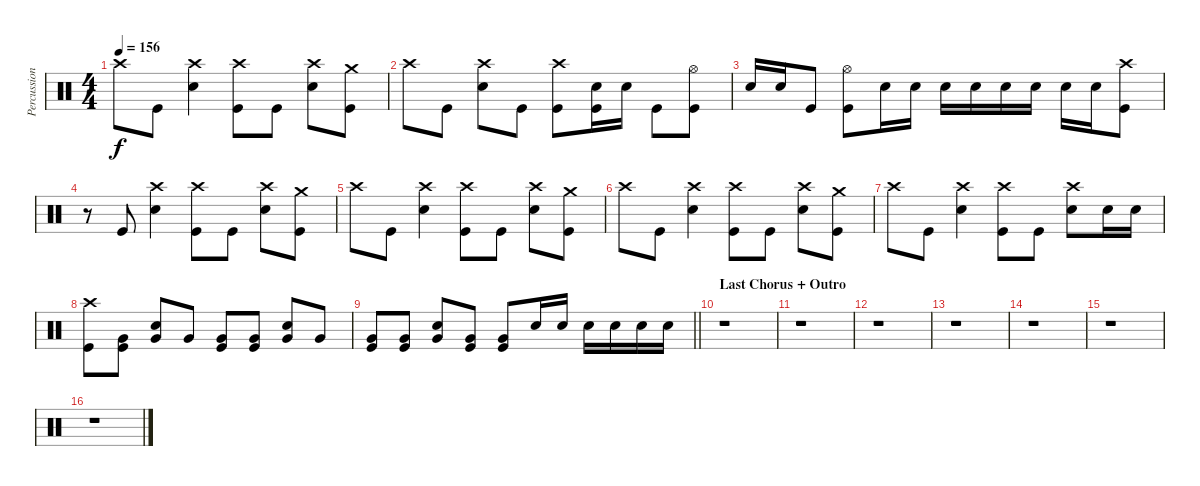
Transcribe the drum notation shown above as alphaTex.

\track ("Percussion" "Percussion") {instrument percussion}
\staff {score}
\articulation defaults
\ts (4 4)
\tempo 156
\clef neutral
\ks c "Crash high (hit)".8{dy f} "Kick (hit)".8
("Crash high (hit)" "Snare (hit) 2").4 ("Crash high (hit)" "Kick (hit)").8 "Kick (hit)".8 ("Crash high (hit)" "Snare (hit) 2").8 ("Crash medium (hit)" "Kick (hit)").8 |
"Crash high (hit)".8 "Kick (hit)".8 ("Crash high (hit)" "Snare (hit) 2").8 "Kick (hit)".8 ("Crash high (hit)" "Kick (hit)").8 ("Snare (hit) 2" "Kick (hit)").16 "Snare (hit) 2".16 "Kick (hit)".8 ("Hi-Hat (open)" "Kick (hit)").8 |
"Snare (hit) 2".16 "Snare (hit) 2".16 "Kick (hit)".8 ("Hi-Hat (open)" "Kick (hit)").8 "Snare (hit) 2".16 "Snare (hit) 2".16 "Snare (hit) 2".16 "Snare (hit) 2".16 "Snare (hit) 2".16 "Snare (hit) 2".16 "Snare (hit) 2".16 "Snare (hit) 2".16 ("Crash high (hit)" "Kick (hit)").8 |
r.8 "Kick (hit)".8 ("Crash high (hit)" "Snare (hit) 2").4 ("Crash high (hit)" "Kick (hit)").8 "Kick (hit)".8 ("Crash high (hit)" "Snare (hit) 2").8 ("Crash medium (hit)" "Kick (hit)").8 |
"Crash high (hit)".8 "Kick (hit)".8 ("Crash high (hit)" "Snare (hit) 2").4 ("Crash high (hit)" "Kick (hit)").8 "Kick (hit)".8 ("Crash high (hit)" "Snare (hit) 2").8 ("Crash medium (hit)" "Kick (hit)").8 |
"Crash high (hit)".8 "Kick (hit)".8 ("Crash high (hit)" "Snare (hit) 2").4 ("Crash high (hit)" "Kick (hit)").8 "Kick (hit)".8 ("Crash high (hit)" "Snare (hit) 2").8 ("Crash medium (hit)" "Kick (hit)").8 |
"Crash high (hit)".8 "Kick (hit)".8 ("Crash high (hit)" "Snare (hit) 2").4 ("Crash high (hit)" "Kick (hit)").8 "Kick (hit)".8 ("Crash high (hit)" "Snare (hit) 2").8 "Snare (hit) 2".16 "Snare (hit) 2".16 |
("Crash high (hit)" "Kick (hit)").8 ("Very Low Tom (hit)" "Kick (hit)").8 ("Snare (hit) 2" "Very Low Tom (hit)").8 "Very Low Tom (hit)".8 ("Very Low Tom (hit)" "Kick (hit)").8 ("Very Low Tom (hit)" "Kick (hit)").8 ("Snare (hit) 2" "Very Low Tom (hit)").8 "Very Low Tom (hit)".8 |
\barLineRight lightlight
("Very Low Tom (hit)" "Kick (hit)").8 ("Very Low Tom (hit)" "Kick (hit)").8 ("Snare (hit) 2" "Very Low Tom (hit)").8 ("Very Low Tom (hit)" "Kick (hit)").8 ("Very Low Tom (hit)" "Kick (hit)").8 "Snare (hit) 2".16 "Snare (hit) 2".16 "Snare (hit) 2".16 "Snare (hit) 2".16 "Snare (hit) 2".16 "Snare (hit) 2".16 |
\section ("" "Last Chorus + Outro")
r.1 |
r.1 |
r.1 |
r.1 |
r.1 |
r.1 |
r.1
